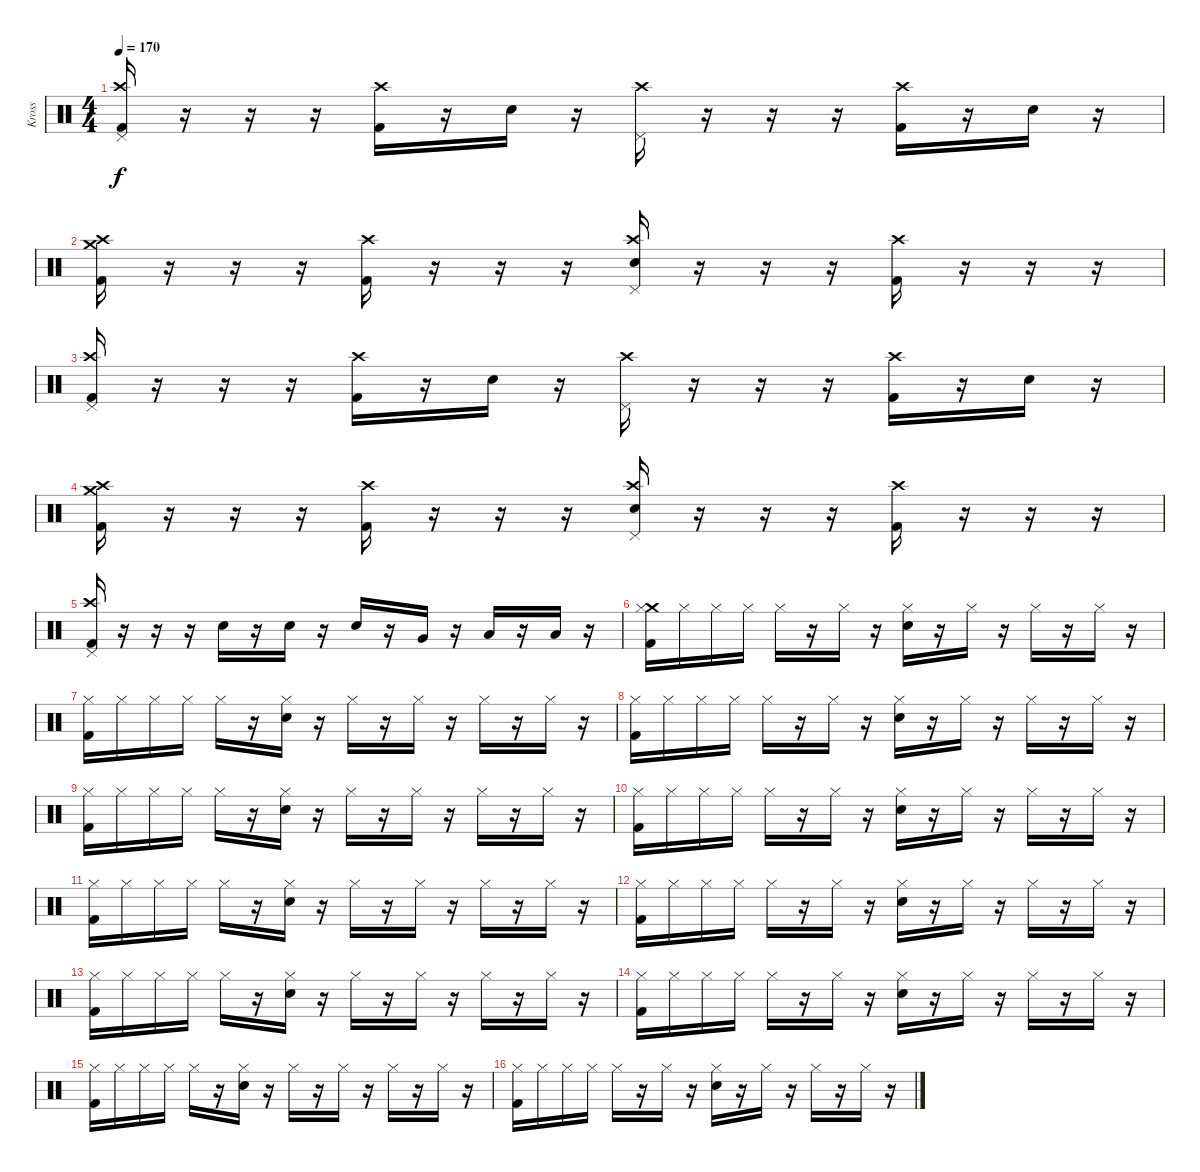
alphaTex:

\track ("Kross" "Kross") {instrument percussion}
\staff {score}
\articulation defaults
\ts (4 4)
\tempo 170
\clef neutral
\ks c
("Pedal Hi-Hat (hit)" "Crash high (hit)" "Kick (hit) 2").16{dy f} r.16 r.16 r.16 ("Crash high (hit)" "Kick (hit) 2").16 r.16 "Electric Snare (hit)".16 r.16 ("Pedal Hi-Hat (hit)" "Crash high (hit)").16 r.16 r.16 r.16 ("Crash high (hit)" "Kick (hit) 2").16 r.16 "Electric Snare (hit)".16 r.16 |
("Crash medium (hit)" "Crash high (hit)" "Kick (hit) 2").16 r.16 r.16 r.16 ("Crash high (hit)" "Kick (hit) 2").16 r.16 r.16 r.16 ("Pedal Hi-Hat (hit)" "Crash high (hit)" "Electric Snare (hit)").16 r.16 r.16 r.16 ("Crash high (hit)" "Kick (hit) 2").16 r.16 r.16 r.16 |
("Pedal Hi-Hat (hit)" "Crash high (hit)" "Kick (hit) 2").16 r.16 r.16 r.16 ("Crash high (hit)" "Kick (hit) 2").16 r.16 "Electric Snare (hit)".16 r.16 ("Pedal Hi-Hat (hit)" "Crash high (hit)").16 r.16 r.16 r.16 ("Crash high (hit)" "Kick (hit) 2").16 r.16 "Electric Snare (hit)".16 r.16 |
("Crash medium (hit)" "Crash high (hit)" "Kick (hit) 2").16 r.16 r.16 r.16 ("Crash high (hit)" "Kick (hit) 2").16 r.16 r.16 r.16 ("Pedal Hi-Hat (hit)" "Crash high (hit)" "Electric Snare (hit)").16 r.16 r.16 r.16 ("Crash high (hit)" "Kick (hit) 2").16 r.16 r.16 r.16 |
("Pedal Hi-Hat (hit)" "Crash high (hit)" "Kick (hit) 2").16 r.16 r.16 r.16 "Electric Snare (hit)".16 r.16 "Electric Snare (hit)".16 r.16 "Electric Snare (hit)".16 r.16 "Very Low Tom (hit)".16 r.16 "Low Floor Tom (hit)".16 r.16 "Low Floor Tom (hit)".16 r.16 |
("Crash medium (hit)" "Hi-Hat (closed)" "Kick (hit) 2").16 "Hi-Hat (closed)".16 "Hi-Hat (closed)".16 "Hi-Hat (closed)".16 "Hi-Hat (closed)".16 r.16 "Hi-Hat (closed)".16 r.16 ("Hi-Hat (closed)" "Electric Snare (hit)").16 r.16 "Hi-Hat (closed)".16 r.16 "Hi-Hat (closed)".16 r.16 "Hi-Hat (closed)".16 r.16 |
("Hi-Hat (closed)" "Kick (hit) 2").16 "Hi-Hat (closed)".16 "Hi-Hat (closed)".16 "Hi-Hat (closed)".16 "Hi-Hat (closed)".16 r.16 ("Hi-Hat (closed)" "Electric Snare (hit)").16 r.16 "Hi-Hat (closed)".16 r.16 "Hi-Hat (closed)".16 r.16 "Hi-Hat (closed)".16 r.16 "Hi-Hat (closed)".16 r.16 |
("Hi-Hat (closed)" "Kick (hit) 2").16 "Hi-Hat (closed)".16 "Hi-Hat (closed)".16 "Hi-Hat (closed)".16 "Hi-Hat (closed)".16 r.16 "Hi-Hat (closed)".16 r.16 ("Hi-Hat (closed)" "Electric Snare (hit)").16 r.16 "Hi-Hat (closed)".16 r.16 "Hi-Hat (closed)".16 r.16 "Hi-Hat (closed)".16 r.16 |
("Hi-Hat (closed)" "Kick (hit) 2").16 "Hi-Hat (closed)".16 "Hi-Hat (closed)".16 "Hi-Hat (closed)".16 "Hi-Hat (closed)".16 r.16 ("Hi-Hat (closed)" "Electric Snare (hit)").16 r.16 "Hi-Hat (closed)".16 r.16 "Hi-Hat (closed)".16 r.16 "Hi-Hat (closed)".16 r.16 "Hi-Hat (closed)".16 r.16 |
("Hi-Hat (closed)" "Kick (hit) 2").16 "Hi-Hat (closed)".16 "Hi-Hat (closed)".16 "Hi-Hat (closed)".16 "Hi-Hat (closed)".16 r.16 "Hi-Hat (closed)".16 r.16 ("Hi-Hat (closed)" "Electric Snare (hit)").16 r.16 "Hi-Hat (closed)".16 r.16 "Hi-Hat (closed)".16 r.16 "Hi-Hat (closed)".16 r.16 |
("Hi-Hat (closed)" "Kick (hit) 2").16 "Hi-Hat (closed)".16 "Hi-Hat (closed)".16 "Hi-Hat (closed)".16 "Hi-Hat (closed)".16 r.16 ("Hi-Hat (closed)" "Electric Snare (hit)").16 r.16 "Hi-Hat (closed)".16 r.16 "Hi-Hat (closed)".16 r.16 "Hi-Hat (closed)".16 r.16 "Hi-Hat (closed)".16 r.16 |
("Hi-Hat (closed)" "Kick (hit) 2").16 "Hi-Hat (closed)".16 "Hi-Hat (closed)".16 "Hi-Hat (closed)".16 "Hi-Hat (closed)".16 r.16 "Hi-Hat (closed)".16 r.16 ("Hi-Hat (closed)" "Electric Snare (hit)").16 r.16 "Hi-Hat (closed)".16 r.16 "Hi-Hat (closed)".16 r.16 "Hi-Hat (closed)".16 r.16 |
("Hi-Hat (closed)" "Kick (hit) 2").16 "Hi-Hat (closed)".16 "Hi-Hat (closed)".16 "Hi-Hat (closed)".16 "Hi-Hat (closed)".16 r.16 ("Hi-Hat (closed)" "Electric Snare (hit)").16 r.16 "Hi-Hat (closed)".16 r.16 "Hi-Hat (closed)".16 r.16 "Hi-Hat (closed)".16 r.16 "Hi-Hat (closed)".16 r.16 |
("Hi-Hat (closed)" "Kick (hit) 2").16 "Hi-Hat (closed)".16 "Hi-Hat (closed)".16 "Hi-Hat (closed)".16 "Hi-Hat (closed)".16 r.16 "Hi-Hat (closed)".16 r.16 ("Hi-Hat (closed)" "Electric Snare (hit)").16 r.16 "Hi-Hat (closed)".16 r.16 "Hi-Hat (closed)".16 r.16 "Hi-Hat (closed)".16 r.16 |
("Hi-Hat (closed)" "Kick (hit) 2").16 "Hi-Hat (closed)".16 "Hi-Hat (closed)".16 "Hi-Hat (closed)".16 "Hi-Hat (closed)".16 r.16 ("Hi-Hat (closed)" "Electric Snare (hit)").16 r.16 "Hi-Hat (closed)".16 r.16 "Hi-Hat (closed)".16 r.16 "Hi-Hat (closed)".16 r.16 "Hi-Hat (closed)".16 r.16 |
("Hi-Hat (closed)" "Kick (hit) 2").16 "Hi-Hat (closed)".16 "Hi-Hat (closed)".16 "Hi-Hat (closed)".16 "Hi-Hat (closed)".16 r.16 "Hi-Hat (closed)".16 r.16 ("Hi-Hat (closed)" "Electric Snare (hit)").16 r.16 "Hi-Hat (closed)".16 r.16 "Hi-Hat (closed)".16 r.16 "Hi-Hat (closed)".16 r.16
